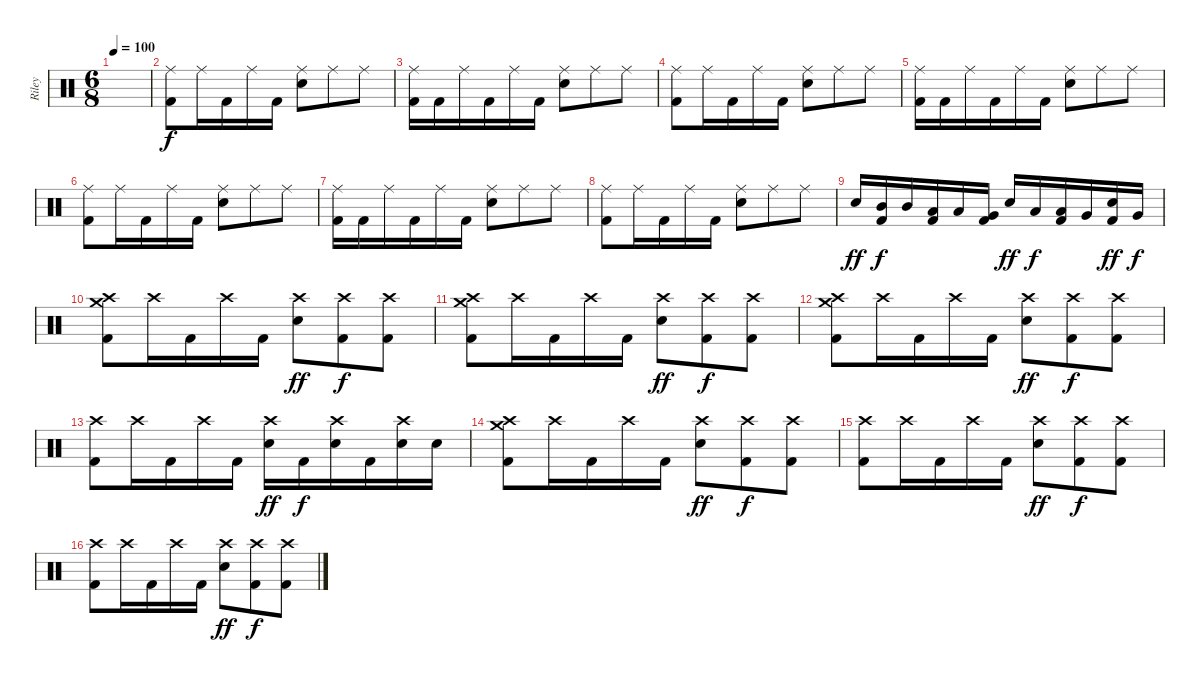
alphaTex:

\track ("Riley" "Riley") {instrument percussion}
\staff {score}
\articulation defaults
\ts (6 8)
\tempo 100
\clef neutral
\ks c
|
("Ride (middle)" "Kick (hit) 2").8 "Ride (middle)".16 "Kick (hit) 2".16 "Ride (middle)".16 "Kick (hit) 2".16 ("Ride (middle)" "Electric Snare (hit)").8 "Ride (middle)".8 "Ride (middle)".8 |
("Ride (middle)" "Kick (hit) 2").16 "Kick (hit) 2".16 "Ride (middle)".16 "Kick (hit) 2".16 "Ride (middle)".16 "Kick (hit) 2".16 ("Ride (middle)" "Electric Snare (hit)").8 "Ride (middle)".8 "Ride (middle)".8 |
("Ride (middle)" "Kick (hit) 2").8 "Ride (middle)".16 "Kick (hit) 2".16 "Ride (middle)".16 "Kick (hit) 2".16 ("Ride (middle)" "Electric Snare (hit)").8 "Ride (middle)".8 "Ride (middle)".8 |
("Ride (middle)" "Kick (hit) 2").16 "Kick (hit) 2".16 "Ride (middle)".16 "Kick (hit) 2".16 "Ride (middle)".16 "Kick (hit) 2".16 ("Ride (middle)" "Electric Snare (hit)").8 "Ride (middle)".8 "Ride (middle)".8 |
("Ride (middle)" "Kick (hit) 2").8 "Ride (middle)".16 "Kick (hit) 2".16 "Ride (middle)".16 "Kick (hit) 2".16 ("Ride (middle)" "Electric Snare (hit)").8 "Ride (middle)".8 "Ride (middle)".8 |
("Ride (middle)" "Kick (hit) 2").16 "Kick (hit) 2".16 "Ride (middle)".16 "Kick (hit) 2".16 "Ride (middle)".16 "Kick (hit) 2".16 ("Ride (middle)" "Electric Snare (hit)").8 "Ride (middle)".8 "Ride (middle)".8 |
("Ride (middle)" "Kick (hit) 2").8 "Ride (middle)".16 "Kick (hit) 2".16 "Ride (middle)".16 "Kick (hit) 2".16 ("Ride (middle)" "Electric Snare (hit)").8 "Ride (middle)".8 "Ride (middle)".8 |
"Electric Snare (hit)".16{dy ff} ("Mid Tom (hit)" "Kick (hit) 2").16{dy f} "Mid Tom (hit)".16 ("Low Tom (hit)" "Kick (hit) 2").16 "Low Tom (hit)".16 ("Very Low Tom (hit)" "Kick (hit) 2").16 "Electric Snare (hit)".16{dy ff} "Low Tom (hit)".16{dy f} ("Low Tom (hit)" "Kick (hit) 2").16 "Very Low Tom (hit)".16 ("Electric Snare (hit)" "Kick (hit) 2").16{dy ff} "Very Low Tom (hit)".16{dy f} |
("Crash medium (hit)" "Crash high (hit)" "Kick (hit) 2").8 "Crash high (hit)".16 "Kick (hit) 2".16 "Crash high (hit)".16 "Kick (hit) 2".16 ("Crash high (hit)" "Electric Snare (hit)").8{dy ff} ("Crash high (hit)" "Kick (hit) 2").8{dy f} ("Crash high (hit)" "Kick (hit) 2").8 |
("Crash medium (hit)" "Crash high (hit)" "Kick (hit) 2").8 "Crash high (hit)".16 "Kick (hit) 2".16 "Crash high (hit)".16 "Kick (hit) 2".16 ("Crash high (hit)" "Electric Snare (hit)").8{dy ff} ("Crash high (hit)" "Kick (hit) 2").8{dy f} ("Crash high (hit)" "Kick (hit) 2").8 |
("Crash medium (hit)" "Crash high (hit)" "Kick (hit) 2").8 "Crash high (hit)".16 "Kick (hit) 2".16 "Crash high (hit)".16 "Kick (hit) 2".16 ("Crash high (hit)" "Electric Snare (hit)").8{dy ff} ("Crash high (hit)" "Kick (hit) 2").8{dy f} ("Crash high (hit)" "Kick (hit) 2").8 |
("Crash high (hit)" "Kick (hit) 2").8 "Crash high (hit)".16 "Kick (hit) 2".16 "Crash high (hit)".16 "Kick (hit) 2".16 ("Crash high (hit)" "Electric Snare (hit)").16{dy ff} "Kick (hit) 2".16{dy f} ("Crash high (hit)" "Electric Snare (hit)").16 "Kick (hit) 2".16 ("Crash high (hit)" "Electric Snare (hit)").16 "Electric Snare (hit)".16 |
("Crash medium (hit)" "Crash high (hit)" "Kick (hit) 2").8 "Crash high (hit)".16 "Kick (hit) 2".16 "Crash high (hit)".16 "Kick (hit) 2".16 ("Crash high (hit)" "Electric Snare (hit)").8{dy ff} ("Crash high (hit)" "Kick (hit) 2").8{dy f} ("Crash high (hit)" "Kick (hit) 2").8 |
("Crash high (hit)" "Kick (hit) 2").8 "Crash high (hit)".16 "Kick (hit) 2".16 "Crash high (hit)".16 "Kick (hit) 2".16 ("Crash high (hit)" "Electric Snare (hit)").8{dy ff} ("Crash high (hit)" "Kick (hit) 2").8{dy f} ("Crash high (hit)" "Kick (hit) 2").8 |
("Crash high (hit)" "Kick (hit) 2").8 "Crash high (hit)".16 "Kick (hit) 2".16 "Crash high (hit)".16 "Kick (hit) 2".16 ("Crash high (hit)" "Electric Snare (hit)").8{dy ff} ("Crash high (hit)" "Kick (hit) 2").8{dy f} ("Crash high (hit)" "Kick (hit) 2").8
